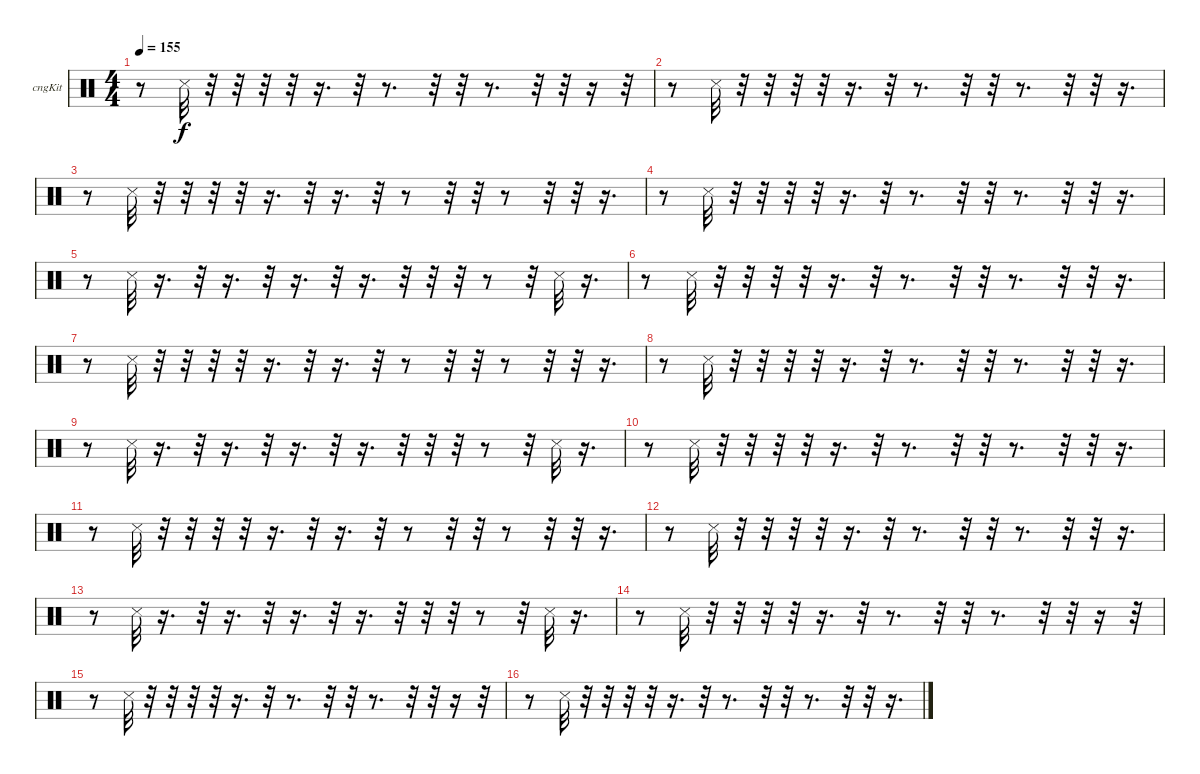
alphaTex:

\bracketExtendMode groupsimilarinstruments
\firstSystemTrackNameOrientation horizontal
\otherSystemsTrackNameOrientation horizontal
\track ("Е. Кулаков" "cngKit") {instrument percussion}
\staff {score}
\articulation defaults
\ts (4 4)
\tempo 155
\clef neutral
\ks c
r.8{dy f} "Snare (side stick) 3".32 r.32 r.32 r.32 r.32 r.16{d} r.32 r.8{d} r.32 r.32 r.8{d} r.32 r.32 r.16 r.32 |
r.8 "Snare (side stick) 3".32 r.32 r.32 r.32 r.32 r.16{d} r.32 r.8{d} r.32 r.32 r.8{d} r.32 r.32 r.16{d} |
r.8 "Snare (side stick) 3".32 r.32 r.32 r.32 r.32 r.16{d} r.32 r.16{d} r.32 r.8 r.32 r.32 r.8 r.32 r.32 r.16{d} |
r.8 "Snare (side stick) 3".32 r.32 r.32 r.32 r.32 r.16{d} r.32 r.8{d} r.32 r.32 r.8{d} r.32 r.32 r.16{d} |
r.8 "Snare (side stick) 3".32 r.16{d} r.32 r.16{d} r.32 r.16{d} r.32 r.16{d} r.32 r.32 r.32 r.8 r.32 "Snare (side stick) 3".32 r.16{d} |
r.8 "Snare (side stick) 3".32 r.32 r.32 r.32 r.32 r.16{d} r.32 r.8{d} r.32 r.32 r.8{d} r.32 r.32 r.16{d} |
r.8 "Snare (side stick) 3".32 r.32 r.32 r.32 r.32 r.16{d} r.32 r.16{d} r.32 r.8 r.32 r.32 r.8 r.32 r.32 r.16{d} |
r.8 "Snare (side stick) 3".32 r.32 r.32 r.32 r.32 r.16{d} r.32 r.8{d} r.32 r.32 r.8{d} r.32 r.32 r.16{d} |
r.8 "Snare (side stick) 3".32 r.16{d} r.32 r.16{d} r.32 r.16{d} r.32 r.16{d} r.32 r.32 r.32 r.8 r.32 "Snare (side stick) 3".32 r.16{d} |
r.8 "Snare (side stick) 3".32 r.32 r.32 r.32 r.32 r.16{d} r.32 r.8{d} r.32 r.32 r.8{d} r.32 r.32 r.16{d} |
r.8 "Snare (side stick) 3".32 r.32 r.32 r.32 r.32 r.16{d} r.32 r.16{d} r.32 r.8 r.32 r.32 r.8 r.32 r.32 r.16{d} |
r.8 "Snare (side stick) 3".32 r.32 r.32 r.32 r.32 r.16{d} r.32 r.8{d} r.32 r.32 r.8{d} r.32 r.32 r.16{d} |
r.8 "Snare (side stick) 3".32 r.16{d} r.32 r.16{d} r.32 r.16{d} r.32 r.16{d} r.32 r.32 r.32 r.8 r.32 "Snare (side stick) 3".32 r.16{d} |
r.8 "Snare (side stick) 3".32 r.32 r.32 r.32 r.32 r.16{d} r.32 r.8{d} r.32 r.32 r.8{d} r.32 r.32 r.16 r.32 |
r.8 "Snare (side stick) 3".32 r.32 r.32 r.32 r.32 r.16{d} r.32 r.8{d} r.32 r.32 r.8{d} r.32 r.32 r.16 r.32 |
r.8 "Snare (side stick) 3".32 r.32 r.32 r.32 r.32 r.16{d} r.32 r.8{d} r.32 r.32 r.8{d} r.32 r.32 r.16{d}
